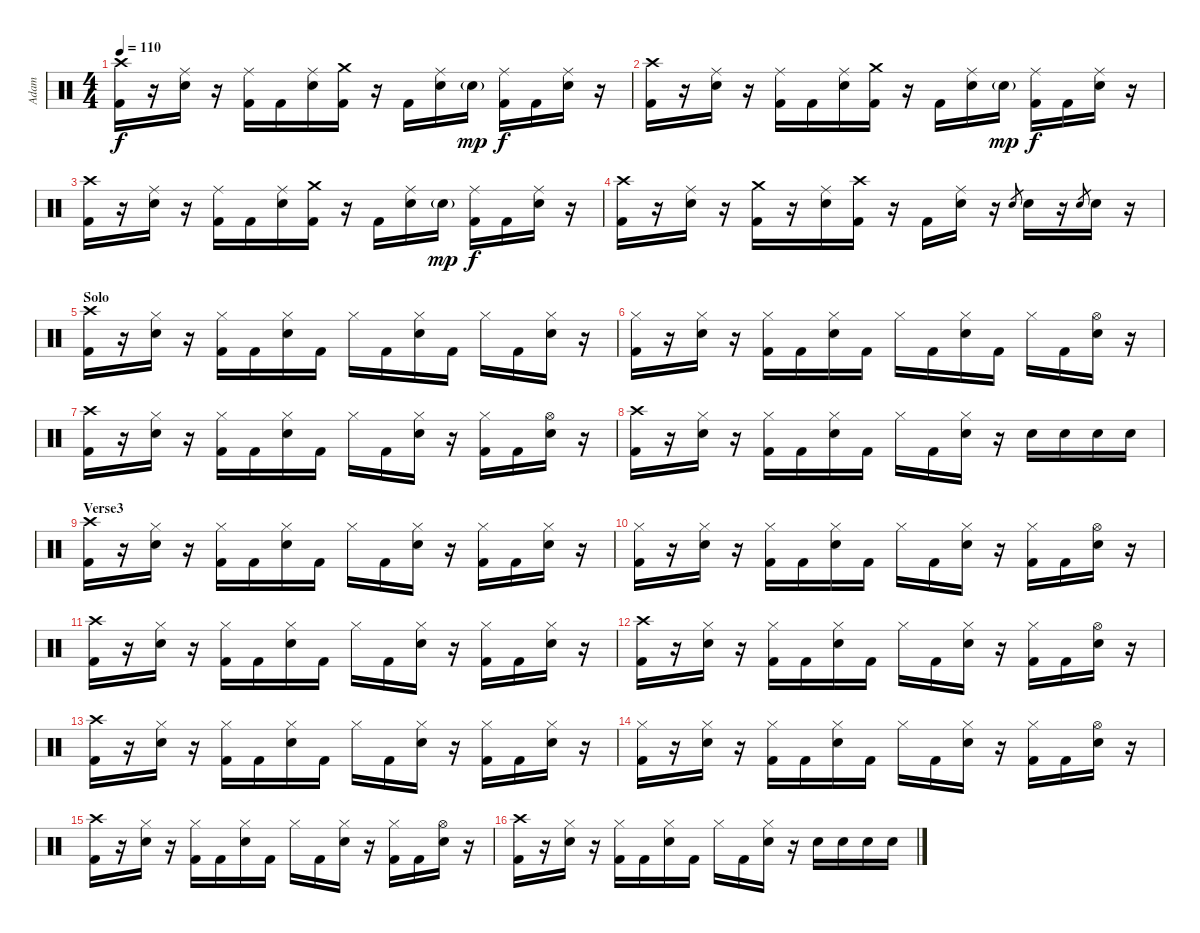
\track ("Adam" "Adam") {instrument percussion}
\staff {score}
\articulation defaults
\ts (4 4)
\tempo 110
\clef neutral
\ks c
("Crash high (hit)" "Kick (hit) 2").16{dy f} r.16 ("Ride (middle)" "Electric Snare (hit)").16 r.16 ("Ride (middle)" "Kick (hit) 2").16 "Kick (hit) 2".16 ("Ride (middle)" "Electric Snare (hit)").16 ("Crash medium (hit)" "Kick (hit) 2").16 r.16 "Kick (hit) 2".16 ("Ride (middle)" "Electric Snare (hit)").16 "Electric Snare (hit)"{g}.16{dy mp} ("Ride (middle)" "Kick (hit) 2").16{dy f} "Kick (hit) 2".16 ("Ride (middle)" "Electric Snare (hit)").16 r.16 |
("Crash high (hit)" "Kick (hit) 2").16 r.16 ("Ride (middle)" "Electric Snare (hit)").16 r.16 ("Ride (middle)" "Kick (hit) 2").16 "Kick (hit) 2".16 ("Ride (middle)" "Electric Snare (hit)").16 ("Crash medium (hit)" "Kick (hit) 2").16 r.16 "Kick (hit) 2".16 ("Ride (middle)" "Electric Snare (hit)").16 "Electric Snare (hit)"{g}.16{dy mp} ("Ride (middle)" "Kick (hit) 2").16{dy f} "Kick (hit) 2".16 ("Ride (middle)" "Electric Snare (hit)").16 r.16 |
("Crash high (hit)" "Kick (hit) 2").16 r.16 ("Ride (middle)" "Electric Snare (hit)").16 r.16 ("Ride (middle)" "Kick (hit) 2").16 "Kick (hit) 2".16 ("Ride (middle)" "Electric Snare (hit)").16 ("Crash medium (hit)" "Kick (hit) 2").16 r.16 "Kick (hit) 2".16 ("Ride (middle)" "Electric Snare (hit)").16 "Electric Snare (hit)"{g}.16{dy mp} ("Ride (middle)" "Kick (hit) 2").16{dy f} "Kick (hit) 2".16 ("Ride (middle)" "Electric Snare (hit)").16 r.16 |
("Crash high (hit)" "Kick (hit) 2").16 r.16 ("Ride (middle)" "Electric Snare (hit)").16 r.16 ("Crash medium (hit)" "Kick (hit) 2").16 r.16 ("Ride (middle)" "Electric Snare (hit)").16 ("Crash high (hit)" "Kick (hit) 2").16 r.16 "Kick (hit) 2".16 ("Ride (middle)" "Electric Snare (hit)").16 r.16 "Electric Snare (hit)".8{gr} "Electric Snare (hit)".16 r.16 "Electric Snare (hit)".8{gr} "Electric Snare (hit)".16 r.16 |
\section ("" "Solo")
("Crash high (hit)" "Kick (hit) 2").16 r.16 ("Hi-Hat (closed)" "Electric Snare (hit)").16 r.16 ("Hi-Hat (closed)" "Kick (hit) 2").16 "Kick (hit) 2".16 ("Hi-Hat (closed)" "Electric Snare (hit)").16 "Kick (hit) 2".16 "Hi-Hat (closed)".16 "Kick (hit) 2".16 ("Hi-Hat (closed)" "Electric Snare (hit)").16 "Kick (hit) 2".16 "Hi-Hat (closed)".16 "Kick (hit) 2".16 ("Hi-Hat (closed)" "Electric Snare (hit)").16 r.16 |
("Hi-Hat (closed)" "Kick (hit) 2").16 r.16 ("Hi-Hat (closed)" "Electric Snare (hit)").16 r.16 ("Hi-Hat (closed)" "Kick (hit) 2").16 "Kick (hit) 2".16 ("Hi-Hat (closed)" "Electric Snare (hit)").16 "Kick (hit) 2".16 "Hi-Hat (closed)".16 "Kick (hit) 2".16 ("Hi-Hat (closed)" "Electric Snare (hit)").16 "Kick (hit) 2".16 "Hi-Hat (closed)".16 "Kick (hit) 2".16 ("Hi-Hat (open)" "Electric Snare (hit)").16 r.16 |
("Crash high (hit)" "Kick (hit) 2").16 r.16 ("Hi-Hat (closed)" "Electric Snare (hit)").16 r.16 ("Hi-Hat (closed)" "Kick (hit) 2").16 "Kick (hit) 2".16 ("Hi-Hat (closed)" "Electric Snare (hit)").16 "Kick (hit) 2".16 "Hi-Hat (closed)".16 "Kick (hit) 2".16 ("Hi-Hat (closed)" "Electric Snare (hit)").16 r.16 ("Hi-Hat (closed)" "Kick (hit) 2").16 "Kick (hit) 2".16 ("Hi-Hat (open)" "Electric Snare (hit)").16 r.16 |
("Crash high (hit)" "Kick (hit) 2").16 r.16 ("Hi-Hat (closed)" "Electric Snare (hit)").16 r.16 ("Hi-Hat (closed)" "Kick (hit) 2").16 "Kick (hit) 2".16 ("Hi-Hat (closed)" "Electric Snare (hit)").16 "Kick (hit) 2".16 "Hi-Hat (closed)".16 "Kick (hit) 2".16 ("Hi-Hat (closed)" "Electric Snare (hit)").16 r.16 "Electric Snare (hit)".16 "Electric Snare (hit)".16 "Electric Snare (hit)".16 "Electric Snare (hit)".16 |
\section ("" "Verse3")
("Crash high (hit)" "Kick (hit) 2").16 r.16 ("Hi-Hat (closed)" "Electric Snare (hit)").16 r.16 ("Hi-Hat (closed)" "Kick (hit) 2").16 "Kick (hit) 2".16 ("Hi-Hat (closed)" "Electric Snare (hit)").16 "Kick (hit) 2".16 "Hi-Hat (closed)".16 "Kick (hit) 2".16 ("Hi-Hat (closed)" "Electric Snare (hit)").16 r.16 ("Hi-Hat (closed)" "Kick (hit) 2").16 "Kick (hit) 2".16 ("Hi-Hat (closed)" "Electric Snare (hit)").16 r.16 |
("Hi-Hat (closed)" "Kick (hit) 2").16 r.16 ("Hi-Hat (closed)" "Electric Snare (hit)").16 r.16 ("Hi-Hat (closed)" "Kick (hit) 2").16 "Kick (hit) 2".16 ("Hi-Hat (closed)" "Electric Snare (hit)").16 "Kick (hit) 2".16 "Hi-Hat (closed)".16 "Kick (hit) 2".16 ("Hi-Hat (closed)" "Electric Snare (hit)").16 r.16 ("Hi-Hat (closed)" "Kick (hit) 2").16 "Kick (hit) 2".16 ("Hi-Hat (open)" "Electric Snare (hit)").16 r.16 |
("Crash high (hit)" "Kick (hit) 2").16 r.16 ("Hi-Hat (closed)" "Electric Snare (hit)").16 r.16 ("Hi-Hat (closed)" "Kick (hit) 2").16 "Kick (hit) 2".16 ("Hi-Hat (closed)" "Electric Snare (hit)").16 "Kick (hit) 2".16 "Hi-Hat (closed)".16 "Kick (hit) 2".16 ("Hi-Hat (closed)" "Electric Snare (hit)").16 r.16 ("Hi-Hat (closed)" "Kick (hit) 2").16 "Kick (hit) 2".16 ("Hi-Hat (closed)" "Electric Snare (hit)").16 r.16 |
("Crash high (hit)" "Kick (hit) 2").16 r.16 ("Hi-Hat (closed)" "Electric Snare (hit)").16 r.16 ("Hi-Hat (closed)" "Kick (hit) 2").16 "Kick (hit) 2".16 ("Hi-Hat (closed)" "Electric Snare (hit)").16 "Kick (hit) 2".16 "Hi-Hat (closed)".16 "Kick (hit) 2".16 ("Hi-Hat (closed)" "Electric Snare (hit)").16 r.16 ("Hi-Hat (closed)" "Kick (hit) 2").16 "Kick (hit) 2".16 ("Hi-Hat (open)" "Electric Snare (hit)").16 r.16 |
("Crash high (hit)" "Kick (hit) 2").16 r.16 ("Hi-Hat (closed)" "Electric Snare (hit)").16 r.16 ("Hi-Hat (closed)" "Kick (hit) 2").16 "Kick (hit) 2".16 ("Hi-Hat (closed)" "Electric Snare (hit)").16 "Kick (hit) 2".16 "Hi-Hat (closed)".16 "Kick (hit) 2".16 ("Hi-Hat (closed)" "Electric Snare (hit)").16 r.16 ("Hi-Hat (closed)" "Kick (hit) 2").16 "Kick (hit) 2".16 ("Hi-Hat (closed)" "Electric Snare (hit)").16 r.16 |
("Hi-Hat (closed)" "Kick (hit) 2").16 r.16 ("Hi-Hat (closed)" "Electric Snare (hit)").16 r.16 ("Hi-Hat (closed)" "Kick (hit) 2").16 "Kick (hit) 2".16 ("Hi-Hat (closed)" "Electric Snare (hit)").16 "Kick (hit) 2".16 "Hi-Hat (closed)".16 "Kick (hit) 2".16 ("Hi-Hat (closed)" "Electric Snare (hit)").16 r.16 ("Hi-Hat (closed)" "Kick (hit) 2").16 "Kick (hit) 2".16 ("Hi-Hat (open)" "Electric Snare (hit)").16 r.16 |
("Crash high (hit)" "Kick (hit) 2").16 r.16 ("Hi-Hat (closed)" "Electric Snare (hit)").16 r.16 ("Hi-Hat (closed)" "Kick (hit) 2").16 "Kick (hit) 2".16 ("Hi-Hat (closed)" "Electric Snare (hit)").16 "Kick (hit) 2".16 "Hi-Hat (closed)".16 "Kick (hit) 2".16 ("Hi-Hat (closed)" "Electric Snare (hit)").16 r.16 ("Hi-Hat (closed)" "Kick (hit) 2").16 "Kick (hit) 2".16 ("Hi-Hat (open)" "Electric Snare (hit)").16 r.16 |
("Crash high (hit)" "Kick (hit) 2").16 r.16 ("Hi-Hat (closed)" "Electric Snare (hit)").16 r.16 ("Hi-Hat (closed)" "Kick (hit) 2").16 "Kick (hit) 2".16 ("Hi-Hat (closed)" "Electric Snare (hit)").16 "Kick (hit) 2".16 "Hi-Hat (closed)".16 "Kick (hit) 2".16 ("Hi-Hat (closed)" "Electric Snare (hit)").16 r.16 "Electric Snare (hit)".16 "Electric Snare (hit)".16 "Electric Snare (hit)".16 "Electric Snare (hit)".16
